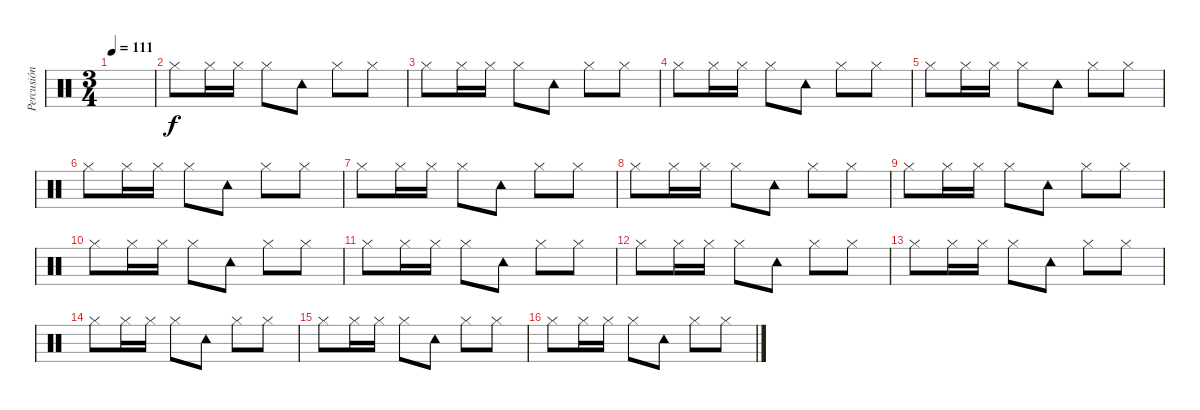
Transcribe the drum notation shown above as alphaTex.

\track ("Percusión" "Percusión") {instrument percussion}
\staff {score}
\articulation defaults
\ts (3 4)
\tempo 111
\clef neutral
\ks c
|
"Hi-Hat (closed)".8 "Hi-Hat (closed)".16 "Hi-Hat (closed)".16 "Hi-Hat (closed)".8 "Tambourine (hit)".8 "Hi-Hat (closed)".8 "Hi-Hat (closed)".8 |
"Hi-Hat (closed)".8 "Hi-Hat (closed)".16 "Hi-Hat (closed)".16 "Hi-Hat (closed)".8 "Tambourine (hit)".8 "Hi-Hat (closed)".8 "Hi-Hat (closed)".8 |
"Hi-Hat (closed)".8 "Hi-Hat (closed)".16 "Hi-Hat (closed)".16 "Hi-Hat (closed)".8 "Tambourine (hit)".8 "Hi-Hat (closed)".8 "Hi-Hat (closed)".8 |
"Hi-Hat (closed)".8 "Hi-Hat (closed)".16 "Hi-Hat (closed)".16 "Hi-Hat (closed)".8 "Tambourine (hit)".8 "Hi-Hat (closed)".8 "Hi-Hat (closed)".8 |
"Hi-Hat (closed)".8 "Hi-Hat (closed)".16 "Hi-Hat (closed)".16 "Hi-Hat (closed)".8 "Tambourine (hit)".8 "Hi-Hat (closed)".8 "Hi-Hat (closed)".8 |
"Hi-Hat (closed)".8 "Hi-Hat (closed)".16 "Hi-Hat (closed)".16 "Hi-Hat (closed)".8 "Tambourine (hit)".8 "Hi-Hat (closed)".8 "Hi-Hat (closed)".8 |
"Hi-Hat (closed)".8 "Hi-Hat (closed)".16 "Hi-Hat (closed)".16 "Hi-Hat (closed)".8 "Tambourine (hit)".8 "Hi-Hat (closed)".8 "Hi-Hat (closed)".8 |
"Hi-Hat (closed)".8 "Hi-Hat (closed)".16 "Hi-Hat (closed)".16 "Hi-Hat (closed)".8 "Tambourine (hit)".8 "Hi-Hat (closed)".8 "Hi-Hat (closed)".8 |
"Hi-Hat (closed)".8 "Hi-Hat (closed)".16 "Hi-Hat (closed)".16 "Hi-Hat (closed)".8 "Tambourine (hit)".8 "Hi-Hat (closed)".8 "Hi-Hat (closed)".8 |
"Hi-Hat (closed)".8 "Hi-Hat (closed)".16 "Hi-Hat (closed)".16 "Hi-Hat (closed)".8 "Tambourine (hit)".8 "Hi-Hat (closed)".8 "Hi-Hat (closed)".8 |
"Hi-Hat (closed)".8 "Hi-Hat (closed)".16 "Hi-Hat (closed)".16 "Hi-Hat (closed)".8 "Tambourine (hit)".8 "Hi-Hat (closed)".8 "Hi-Hat (closed)".8 |
"Hi-Hat (closed)".8 "Hi-Hat (closed)".16 "Hi-Hat (closed)".16 "Hi-Hat (closed)".8 "Tambourine (hit)".8 "Hi-Hat (closed)".8 "Hi-Hat (closed)".8 |
"Hi-Hat (closed)".8 "Hi-Hat (closed)".16 "Hi-Hat (closed)".16 "Hi-Hat (closed)".8 "Tambourine (hit)".8 "Hi-Hat (closed)".8 "Hi-Hat (closed)".8 |
"Hi-Hat (closed)".8 "Hi-Hat (closed)".16 "Hi-Hat (closed)".16 "Hi-Hat (closed)".8 "Tambourine (hit)".8 "Hi-Hat (closed)".8 "Hi-Hat (closed)".8 |
"Hi-Hat (closed)".8 "Hi-Hat (closed)".16 "Hi-Hat (closed)".16 "Hi-Hat (closed)".8 "Tambourine (hit)".8 "Hi-Hat (closed)".8 "Hi-Hat (closed)".8
